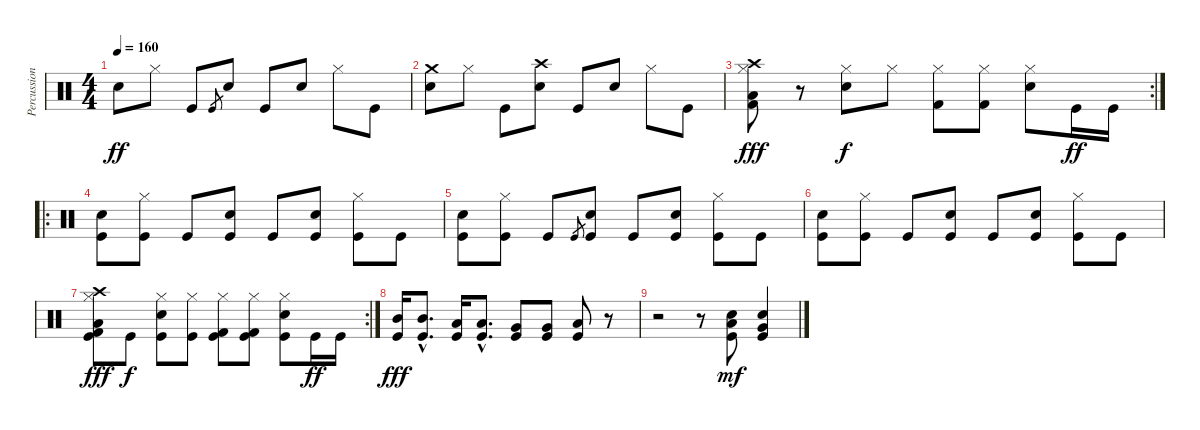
\track ("Percussion" "Percussion") {instrument percussion}
\staff {score}
\articulation defaults
\ts (4 4)
\tempo 160
\clef neutral
\ks c "Electric Snare (hit)".8{dy ff} "Hi-Hat (closed)".8 "Kick (hit)".8 "Kick (hit)".8{gr} "Electric Snare (hit)".8 "Kick (hit)".8 "Electric Snare (hit)".8 "Hi-Hat (closed)".8 "Kick (hit)".8
|
("Electric Snare (hit)" "Crash medium (hit)").8 "Hi-Hat (closed)".8 "Kick (hit)".8 ("Electric Snare (hit)" "Crash high (hit)").8 "Kick (hit)".8 "Electric Snare (hit)".8 "Hi-Hat (closed)".8 "Kick (hit)".8 |
\rc 2
("Kick (hit) 2" "Hi-Hat (closed)" "Crash high (hit)" "Low Floor Tom (hit)").8{dy fff} r.8 ("Snare (hit) 2" "Hi-Hat (closed)").8{dy f} "Hi-Hat (closed)".8 ("Kick (hit) 2" "Hi-Hat (closed)").8 ("Kick (hit) 2" "Hi-Hat (closed)").8 ("Snare (hit) 2" "Hi-Hat (closed)").8 "Kick (hit)".16{dy ff} "Kick (hit)".16 |
\ro
("Electric Snare (hit)" "Kick (hit)").8 ("Hi-Hat (closed)" "Kick (hit)").8 "Kick (hit)".8 ("Electric Snare (hit)" "Kick (hit)").8 "Kick (hit)".8 ("Electric Snare (hit)" "Kick (hit)").8 ("Hi-Hat (closed)" "Kick (hit)").8 "Kick (hit)".8 |
("Electric Snare (hit)" "Kick (hit)").8 ("Hi-Hat (closed)" "Kick (hit)").8 "Kick (hit)".8 "Kick (hit)".8{gr} ("Electric Snare (hit)" "Kick (hit)").8 "Kick (hit)".8 ("Electric Snare (hit)" "Kick (hit)").8 ("Hi-Hat (closed)" "Kick (hit)").8 "Kick (hit)".8 |
("Electric Snare (hit)" "Kick (hit)").8 ("Hi-Hat (closed)" "Kick (hit)").8 "Kick (hit)".8 ("Electric Snare (hit)" "Kick (hit)").8 "Kick (hit)".8 ("Electric Snare (hit)" "Kick (hit)").8 ("Hi-Hat (closed)" "Kick (hit)").8 "Kick (hit)".8 |
\rc 2
("Kick (hit) 2" "Hi-Hat (closed)" "Crash high (hit)" "Kick (hit)" "Low Floor Tom (hit)").8{dy fff} "Kick (hit)".8{dy f} ("Snare (hit) 2" "Hi-Hat (closed)" "Kick (hit)").8 ("Hi-Hat (closed)" "Kick (hit)").8 ("Kick (hit) 2" "Hi-Hat (closed)" "Kick (hit)").8 ("Kick (hit) 2" "Hi-Hat (closed)" "Kick (hit)").8 ("Snare (hit) 2" "Hi-Hat (closed)" "Kick (hit)").8 "Kick (hit)".16{dy ff} "Kick (hit)".16 |
("Kick (hit)" "Mid Tom (hit)").16{dy fff} ("Kick (hit)"{hac} "Mid Tom (hit)"{hac}).8{d} ("Kick (hit)" "Low Tom (hit)").16 ("Kick (hit)"{hac} "Low Tom (hit)"{hac}).8{d} ("Kick (hit)" "Very Low Tom (hit)").8 ("Kick (hit)" "Very Low Tom (hit)").8 ("Kick (hit)" "Low Floor Tom (hit)").8 r.8 |
r.2 r.8 ("Electric Snare (hit)" "Kick (hit)" "Low Tom (hit)").8{dy mf} ("Snare (hit) 2" "Kick (hit)" "Very Low Tom (hit)").4
